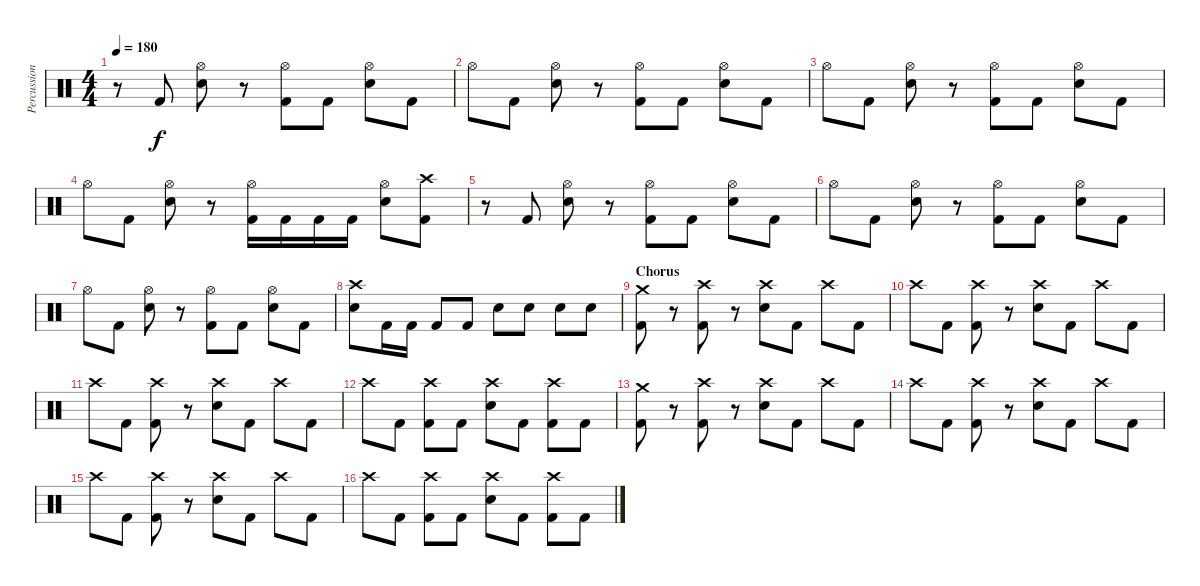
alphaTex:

\track ("Percussion" "Percussion") {instrument percussion}
\staff {score}
\articulation defaults
\ts (4 4)
\tempo 180
\clef neutral
\ks c
r.8{dy f} "Kick (hit) 2".8 ("Hi-Hat (open)" "Electric Snare (hit)").8 r.8 ("Hi-Hat (open)" "Kick (hit) 2").8 "Kick (hit) 2".8 ("Hi-Hat (open)" "Electric Snare (hit)").8 "Kick (hit) 2".8 |
"Hi-Hat (open)".8 "Kick (hit) 2".8 ("Hi-Hat (open)" "Electric Snare (hit)").8 r.8 ("Hi-Hat (open)" "Kick (hit) 2").8 "Kick (hit) 2".8 ("Hi-Hat (open)" "Electric Snare (hit)").8 "Kick (hit) 2".8 |
"Hi-Hat (open)".8 "Kick (hit) 2".8 ("Hi-Hat (open)" "Electric Snare (hit)").8 r.8 ("Hi-Hat (open)" "Kick (hit) 2").8 "Kick (hit) 2".8 ("Hi-Hat (open)" "Electric Snare (hit)").8 "Kick (hit) 2".8 |
"Hi-Hat (open)".8 "Kick (hit) 2".8 ("Hi-Hat (open)" "Electric Snare (hit)").8 r.8 ("Hi-Hat (open)" "Kick (hit) 2").16 "Kick (hit) 2".16 "Kick (hit) 2".16 "Kick (hit) 2".16 ("Hi-Hat (open)" "Electric Snare (hit)").8 ("Crash high (hit)" "Kick (hit) 2").8 |
r.8 "Kick (hit) 2".8 ("Hi-Hat (open)" "Electric Snare (hit)").8 r.8 ("Hi-Hat (open)" "Kick (hit) 2").8 "Kick (hit) 2".8 ("Hi-Hat (open)" "Electric Snare (hit)").8 "Kick (hit) 2".8 |
"Hi-Hat (open)".8 "Kick (hit) 2".8 ("Hi-Hat (open)" "Electric Snare (hit)").8 r.8 ("Hi-Hat (open)" "Kick (hit) 2").8 "Kick (hit) 2".8 ("Hi-Hat (open)" "Electric Snare (hit)").8 "Kick (hit) 2".8 |
"Hi-Hat (open)".8 "Kick (hit) 2".8 ("Hi-Hat (open)" "Electric Snare (hit)").8 r.8 ("Hi-Hat (open)" "Kick (hit) 2").8 "Kick (hit) 2".8 ("Hi-Hat (open)" "Electric Snare (hit)").8 "Kick (hit) 2".8 |
("Crash high (hit)" "Electric Snare (hit)").8 "Kick (hit) 2".16 "Kick (hit) 2".16 "Kick (hit) 2".8 "Kick (hit) 2".8 "Electric Snare (hit)".8 "Electric Snare (hit)".8 "Electric Snare (hit)".8 "Electric Snare (hit)".8 |
\section ("" "Chorus")
("Crash medium (hit)" "Kick (hit) 2").8 r.8 ("Crash high (hit)" "Kick (hit) 2").8 r.8 ("Crash high (hit)" "Electric Snare (hit)").8 "Kick (hit) 2".8 "Crash high (hit)".8 "Kick (hit) 2".8 |
"Crash high (hit)".8 "Kick (hit) 2".8 ("Crash high (hit)" "Kick (hit) 2").8 r.8 ("Crash high (hit)" "Electric Snare (hit)").8 "Kick (hit) 2".8 "Crash high (hit)".8 "Kick (hit) 2".8 |
"Crash high (hit)".8 "Kick (hit) 2".8 ("Crash high (hit)" "Kick (hit) 2").8 r.8 ("Crash high (hit)" "Electric Snare (hit)").8 "Kick (hit) 2".8 "Crash high (hit)".8 "Kick (hit) 2".8 |
"Crash high (hit)".8 "Kick (hit) 2".8 ("Crash high (hit)" "Kick (hit) 2").8 "Kick (hit) 2".8 ("Crash high (hit)" "Electric Snare (hit)").8 "Kick (hit) 2".8 ("Crash high (hit)" "Kick (hit) 2").8 "Kick (hit) 2".8 |
("Crash medium (hit)" "Kick (hit) 2").8 r.8 ("Crash high (hit)" "Kick (hit) 2").8 r.8 ("Crash high (hit)" "Electric Snare (hit)").8 "Kick (hit) 2".8 "Crash high (hit)".8 "Kick (hit) 2".8 |
"Crash high (hit)".8 "Kick (hit) 2".8 ("Crash high (hit)" "Kick (hit) 2").8 r.8 ("Crash high (hit)" "Electric Snare (hit)").8 "Kick (hit) 2".8 "Crash high (hit)".8 "Kick (hit) 2".8 |
"Crash high (hit)".8 "Kick (hit) 2".8 ("Crash high (hit)" "Kick (hit) 2").8 r.8 ("Crash high (hit)" "Electric Snare (hit)").8 "Kick (hit) 2".8 "Crash high (hit)".8 "Kick (hit) 2".8 |
"Crash high (hit)".8 "Kick (hit) 2".8 ("Crash high (hit)" "Kick (hit) 2").8 "Kick (hit) 2".8 ("Crash high (hit)" "Electric Snare (hit)").8 "Kick (hit) 2".8 ("Crash high (hit)" "Kick (hit) 2").8 "Kick (hit) 2".8
